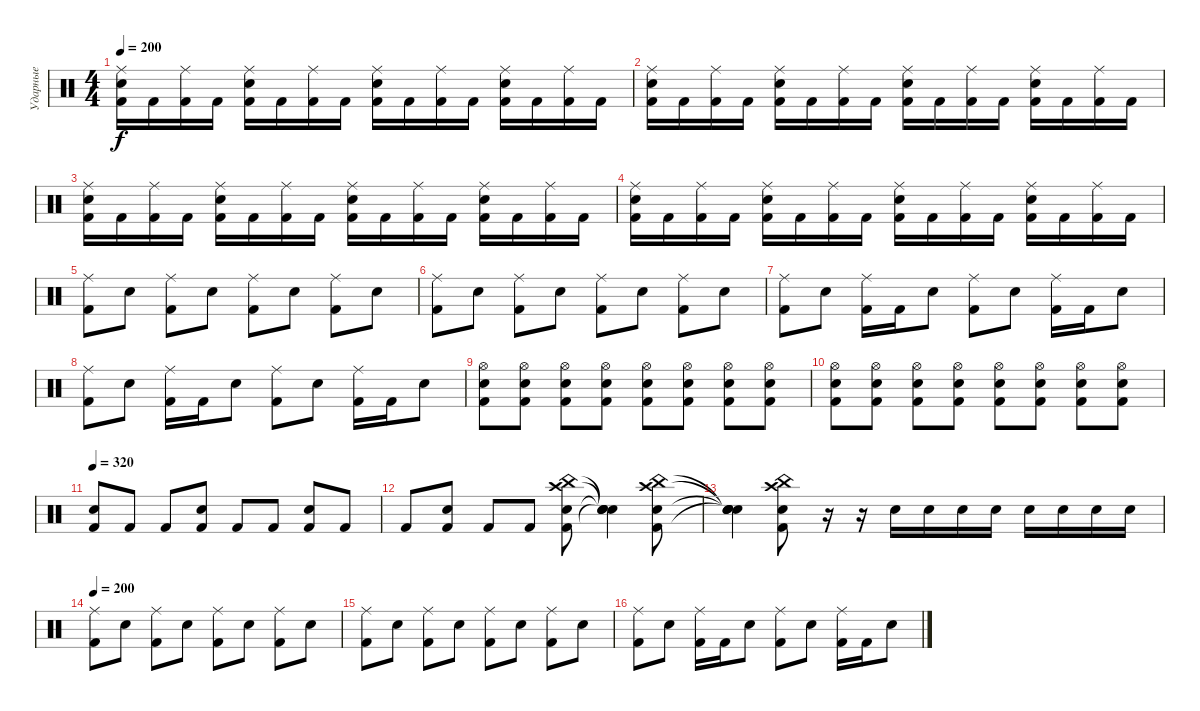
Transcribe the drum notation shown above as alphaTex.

\track ("Ударные" "Ударные") {instrument percussion}
\staff {score}
\articulation defaults
\ts (4 4)
\tempo 200
\clef neutral
\ks c
("Kick (hit) 2" "Electric Snare (hit)" "Ride (middle)").16{dy f} "Kick (hit) 2".16 ("Kick (hit) 2" "Ride (middle)").16 "Kick (hit) 2".16 ("Kick (hit) 2" "Electric Snare (hit)" "Ride (middle)").16 "Kick (hit) 2".16 ("Kick (hit) 2" "Ride (middle)").16 "Kick (hit) 2".16 ("Kick (hit) 2" "Electric Snare (hit)" "Ride (middle)").16 "Kick (hit) 2".16 ("Kick (hit) 2" "Ride (middle)").16 "Kick (hit) 2".16 ("Kick (hit) 2" "Electric Snare (hit)" "Ride (middle)").16 "Kick (hit) 2".16 ("Kick (hit) 2" "Ride (middle)").16 "Kick (hit) 2".16 |
("Kick (hit) 2" "Electric Snare (hit)" "Ride (middle)").16 "Kick (hit) 2".16 ("Kick (hit) 2" "Ride (middle)").16 "Kick (hit) 2".16 ("Kick (hit) 2" "Electric Snare (hit)" "Ride (middle)").16 "Kick (hit) 2".16 ("Kick (hit) 2" "Ride (middle)").16 "Kick (hit) 2".16 ("Kick (hit) 2" "Electric Snare (hit)" "Ride (middle)").16 "Kick (hit) 2".16 ("Kick (hit) 2" "Ride (middle)").16 "Kick (hit) 2".16 ("Kick (hit) 2" "Electric Snare (hit)" "Ride (middle)").16 "Kick (hit) 2".16 ("Kick (hit) 2" "Ride (middle)").16 "Kick (hit) 2".16 |
("Kick (hit) 2" "Electric Snare (hit)" "Ride (middle)").16 "Kick (hit) 2".16 ("Kick (hit) 2" "Ride (middle)").16 "Kick (hit) 2".16 ("Kick (hit) 2" "Electric Snare (hit)" "Ride (middle)").16 "Kick (hit) 2".16 ("Kick (hit) 2" "Ride (middle)").16 "Kick (hit) 2".16 ("Kick (hit) 2" "Electric Snare (hit)" "Ride (middle)").16 "Kick (hit) 2".16 ("Kick (hit) 2" "Ride (middle)").16 "Kick (hit) 2".16 ("Kick (hit) 2" "Electric Snare (hit)" "Ride (middle)").16 "Kick (hit) 2".16 ("Kick (hit) 2" "Ride (middle)").16 "Kick (hit) 2".16 |
("Kick (hit) 2" "Electric Snare (hit)" "Ride (middle)").16 "Kick (hit) 2".16 ("Kick (hit) 2" "Ride (middle)").16 "Kick (hit) 2".16 ("Kick (hit) 2" "Electric Snare (hit)" "Ride (middle)").16 "Kick (hit) 2".16 ("Kick (hit) 2" "Ride (middle)").16 "Kick (hit) 2".16 ("Kick (hit) 2" "Electric Snare (hit)" "Ride (middle)").16 "Kick (hit) 2".16 ("Kick (hit) 2" "Ride (middle)").16 "Kick (hit) 2".16 ("Kick (hit) 2" "Electric Snare (hit)" "Ride (middle)").16 "Kick (hit) 2".16 ("Kick (hit) 2" "Ride (middle)").16 "Kick (hit) 2".16 |
("Kick (hit) 2" "Ride (middle)").8 "Electric Snare (hit)".8 ("Kick (hit) 2" "Ride (middle)").8 "Electric Snare (hit)".8 ("Kick (hit) 2" "Ride (middle)").8 "Electric Snare (hit)".8 ("Kick (hit) 2" "Ride (middle)").8 "Electric Snare (hit)".8 |
("Kick (hit) 2" "Ride (middle)").8 "Electric Snare (hit)".8 ("Kick (hit) 2" "Ride (middle)").8 "Electric Snare (hit)".8 ("Kick (hit) 2" "Ride (middle)").8 "Electric Snare (hit)".8 ("Kick (hit) 2" "Ride (middle)").8 "Electric Snare (hit)".8 |
("Kick (hit) 2" "Ride (middle)").8 "Electric Snare (hit)".8 ("Kick (hit) 2" "Ride (middle)").16 "Kick (hit) 2".16 "Electric Snare (hit)".8 ("Kick (hit) 2" "Ride (middle)").8 "Electric Snare (hit)".8 ("Kick (hit) 2" "Ride (middle)").16 "Kick (hit) 2".16 "Electric Snare (hit)".8 |
("Kick (hit) 2" "Ride (middle)").8 "Electric Snare (hit)".8 ("Kick (hit) 2" "Ride (middle)").16 "Kick (hit) 2".16 "Electric Snare (hit)".8 ("Kick (hit) 2" "Ride (middle)").8 "Electric Snare (hit)".8 ("Kick (hit) 2" "Ride (middle)").16 "Kick (hit) 2".16 "Electric Snare (hit)".8 |
("Electric Snare (hit)" "Kick (hit) 2" "Hi-Hat (open)").8 ("Hi-Hat (open)" "Kick (hit) 2" "Electric Snare (hit)").8 ("Electric Snare (hit)" "Kick (hit) 2" "Hi-Hat (open)").8 ("Hi-Hat (open)" "Kick (hit) 2" "Electric Snare (hit)").8 ("Electric Snare (hit)" "Kick (hit) 2" "Hi-Hat (open)").8 ("Hi-Hat (open)" "Kick (hit) 2" "Electric Snare (hit)").8 ("Electric Snare (hit)" "Kick (hit) 2" "Hi-Hat (open)").8 ("Hi-Hat (open)" "Kick (hit) 2" "Electric Snare (hit)").8 |
("Electric Snare (hit)" "Kick (hit) 2" "Hi-Hat (open)").8 ("Hi-Hat (open)" "Kick (hit) 2" "Electric Snare (hit)").8 ("Electric Snare (hit)" "Kick (hit) 2" "Hi-Hat (open)").8 ("Hi-Hat (open)" "Kick (hit) 2" "Electric Snare (hit)").8 ("Electric Snare (hit)" "Kick (hit) 2" "Hi-Hat (open)").8 ("Hi-Hat (open)" "Kick (hit) 2" "Electric Snare (hit)").8 ("Electric Snare (hit)" "Kick (hit) 2" "Hi-Hat (open)").8 ("Hi-Hat (open)" "Kick (hit) 2" "Electric Snare (hit)").8 |
\tempo 330
\tempo 320
("Kick (hit) 2" "Electric Snare (hit)").8 "Kick (hit) 2".8 "Kick (hit) 2".8 ("Kick (hit) 2" "Electric Snare (hit)").8 "Kick (hit) 2".8 "Kick (hit) 2".8 ("Kick (hit) 2" "Electric Snare (hit)").8 "Kick (hit) 2".8 |
"Kick (hit) 2".8 ("Kick (hit) 2" "Electric Snare (hit)").8 "Kick (hit) 2".8 "Kick (hit) 2".8 ("Kick (hit) 2" "Electric Snare (hit)" "Crash high (hit)" "China (hit)").8 ("Snare (hit)"{t} "Snare (hit)"{t} "Snare (hit)"{t} "Snare (hit)"{t}).4 ("Kick (hit) 2" "Electric Snare (hit)" "Crash high (hit)" "China (hit)").8 |
("Snare (hit)"{t} "Snare (hit)"{t} "Snare (hit)"{t} "Snare (hit)"{t}).4 ("China (hit)" "Crash high (hit)" "Kick (hit) 2" "Electric Snare (hit)").8 r.16 r.16 "Electric Snare (hit)".16 "Electric Snare (hit)".16 "Electric Snare (hit)".16 "Electric Snare (hit)".16 "Electric Snare (hit)".16 "Electric Snare (hit)".16 "Electric Snare (hit)".16 "Electric Snare (hit)".16 |
\tempo 200
("Kick (hit) 2" "Ride (middle)").8 "Electric Snare (hit)".8 ("Kick (hit) 2" "Ride (middle)").8 "Electric Snare (hit)".8 ("Kick (hit) 2" "Ride (middle)").8 "Electric Snare (hit)".8 ("Kick (hit) 2" "Ride (middle)").8 "Electric Snare (hit)".8 |
("Kick (hit) 2" "Ride (middle)").8 "Electric Snare (hit)".8 ("Kick (hit) 2" "Ride (middle)").8 "Electric Snare (hit)".8 ("Kick (hit) 2" "Ride (middle)").8 "Electric Snare (hit)".8 ("Kick (hit) 2" "Ride (middle)").8 "Electric Snare (hit)".8 |
("Kick (hit) 2" "Ride (middle)").8 "Electric Snare (hit)".8 ("Kick (hit) 2" "Ride (middle)").16 "Kick (hit) 2".16 "Electric Snare (hit)".8 ("Kick (hit) 2" "Ride (middle)").8 "Electric Snare (hit)".8 ("Kick (hit) 2" "Ride (middle)").16 "Kick (hit) 2".16 "Electric Snare (hit)".8
